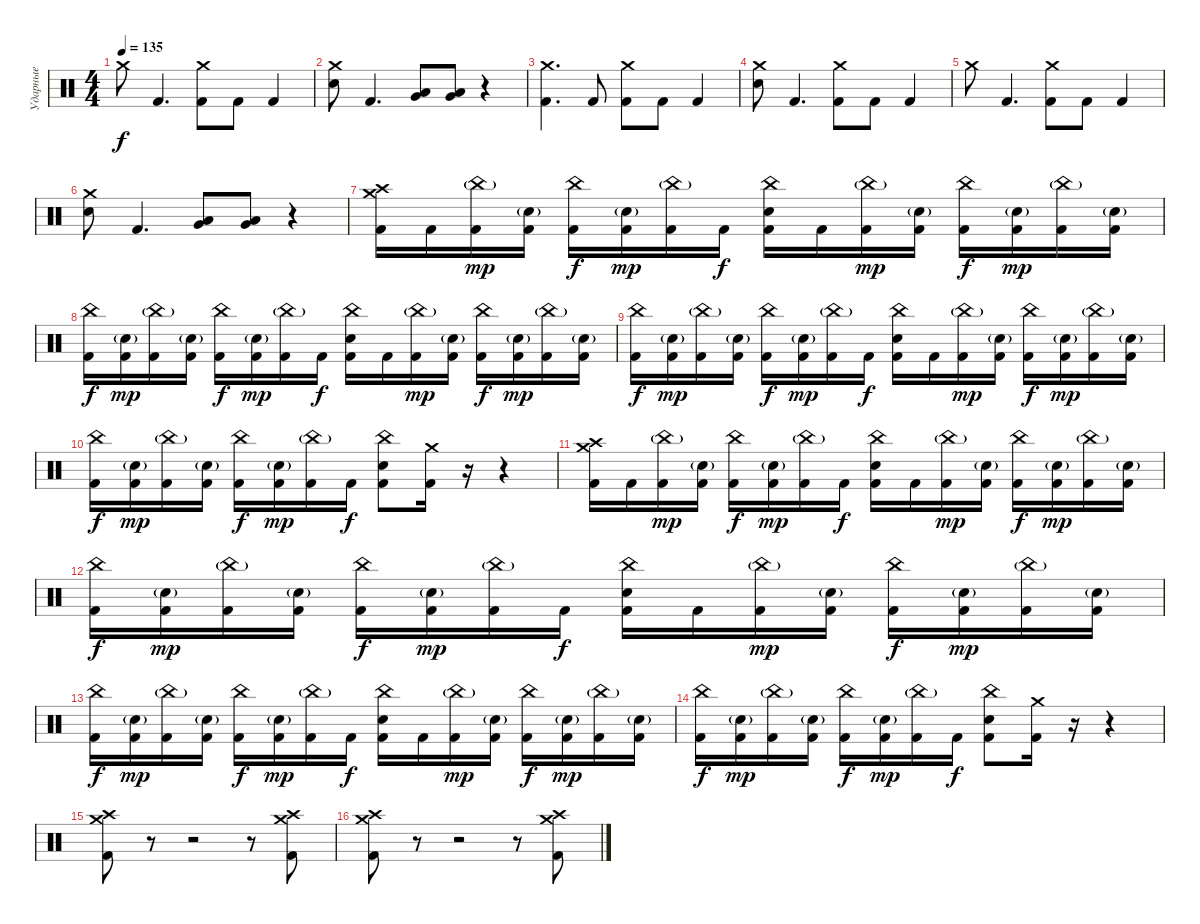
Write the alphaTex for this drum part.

\track ("Ударные" "Ударные") {instrument percussion}
\staff {score}
\articulation defaults
\ts (4 4)
\tempo 135
\clef neutral
\ks c "Crash medium (hit)".8{dy f} "Kick (hit) 2".4{d}
("Crash medium (hit)" "Kick (hit) 2").8 "Kick (hit) 2".8 "Kick (hit) 2".4 |
("Crash medium (hit)" "Electric Snare (hit)").8 "Kick (hit) 2".4{d} ("Low Tom (hit)" "Very Low Tom (hit)").8 ("Low Tom (hit)" "Very Low Tom (hit)").8 r.4 |
("Crash medium (hit)" "Kick (hit) 2").4{d} "Kick (hit) 2".8 ("Crash medium (hit)" "Kick (hit) 2").8 "Kick (hit) 2".8 "Kick (hit) 2".4 |
("Crash medium (hit)" "Electric Snare (hit)").8 "Kick (hit) 2".4{d} ("Crash medium (hit)" "Kick (hit) 2").8 "Kick (hit) 2".8 "Kick (hit) 2".4 |
"Crash medium (hit)".8 "Kick (hit) 2".4{d} ("Crash medium (hit)" "Kick (hit) 2").8 "Kick (hit) 2".8 "Kick (hit) 2".4 |
("Crash medium (hit)" "Electric Snare (hit)").8 "Kick (hit) 2".4{d} ("Low Tom (hit)" "Very Low Tom (hit)").8 ("Low Tom (hit)" "Very Low Tom (hit)").8 r.4 |
("Crash medium (hit)" "Crash high (hit)" "Kick (hit) 2").16 "Kick (hit) 2".16 ("China (hit)"{g} "Kick (hit) 2").16{dy mp} ("Electric Snare (hit)"{g} "Kick (hit) 2").16 ("China (hit)" "Kick (hit) 2").16{dy f} ("Electric Snare (hit)"{g} "Kick (hit) 2").16{dy mp} ("China (hit)"{g} "Kick (hit) 2").16 "Kick (hit) 2".16{dy f} ("China (hit)" "Electric Snare (hit)" "Kick (hit) 2").16 "Kick (hit) 2".16 ("China (hit)"{g} "Kick (hit) 2").16{dy mp} ("Electric Snare (hit)"{g} "Kick (hit) 2").16 ("China (hit)" "Kick (hit) 2").16{dy f} ("Electric Snare (hit)"{g} "Kick (hit) 2").16{dy mp} ("China (hit)"{g} "Kick (hit) 2").16 ("Electric Snare (hit)"{g} "Kick (hit) 2").16 |
("China (hit)" "Kick (hit) 2").16{dy f} ("Electric Snare (hit)"{g} "Kick (hit) 2").16{dy mp} ("China (hit)"{g} "Kick (hit) 2").16 ("Electric Snare (hit)"{g} "Kick (hit) 2").16 ("China (hit)" "Kick (hit) 2").16{dy f} ("Electric Snare (hit)"{g} "Kick (hit) 2").16{dy mp} ("China (hit)"{g} "Kick (hit) 2").16 "Kick (hit) 2".16{dy f} ("China (hit)" "Electric Snare (hit)" "Kick (hit) 2").16 "Kick (hit) 2".16 ("China (hit)"{g} "Kick (hit) 2").16{dy mp} ("Electric Snare (hit)"{g} "Kick (hit) 2").16 ("China (hit)" "Kick (hit) 2").16{dy f} ("Electric Snare (hit)"{g} "Kick (hit) 2").16{dy mp} ("China (hit)"{g} "Kick (hit) 2").16 ("Electric Snare (hit)"{g} "Kick (hit) 2").16 |
("China (hit)" "Kick (hit) 2").16{dy f} ("Electric Snare (hit)"{g} "Kick (hit) 2").16{dy mp} ("China (hit)"{g} "Kick (hit) 2").16 ("Electric Snare (hit)"{g} "Kick (hit) 2").16 ("China (hit)" "Kick (hit) 2").16{dy f} ("Electric Snare (hit)"{g} "Kick (hit) 2").16{dy mp} ("China (hit)"{g} "Kick (hit) 2").16 "Kick (hit) 2".16{dy f} ("China (hit)" "Electric Snare (hit)" "Kick (hit) 2").16 "Kick (hit) 2".16 ("China (hit)"{g} "Kick (hit) 2").16{dy mp} ("Electric Snare (hit)"{g} "Kick (hit) 2").16 ("China (hit)" "Kick (hit) 2").16{dy f} ("Electric Snare (hit)"{g} "Kick (hit) 2").16{dy mp} ("China (hit)"{g} "Kick (hit) 2").16 ("Electric Snare (hit)"{g} "Kick (hit) 2").16 |
("China (hit)" "Kick (hit) 2").16{dy f} ("Electric Snare (hit)"{g} "Kick (hit) 2").16{dy mp} ("China (hit)"{g} "Kick (hit) 2").16 ("Electric Snare (hit)"{g} "Kick (hit) 2").16 ("China (hit)" "Kick (hit) 2").16{dy f} ("Electric Snare (hit)"{g} "Kick (hit) 2").16{dy mp} ("China (hit)"{g} "Kick (hit) 2").16 "Kick (hit) 2".16{dy f} ("China (hit)" "Electric Snare (hit)" "Kick (hit) 2").8 ("Crash medium (hit)" "Kick (hit) 2").16 r.16 r.4 |
("Crash medium (hit)" "Crash high (hit)" "Kick (hit) 2").16 "Kick (hit) 2".16 ("China (hit)"{g} "Kick (hit) 2").16{dy mp} ("Electric Snare (hit)"{g} "Kick (hit) 2").16 ("China (hit)" "Kick (hit) 2").16{dy f} ("Electric Snare (hit)"{g} "Kick (hit) 2").16{dy mp} ("China (hit)"{g} "Kick (hit) 2").16 "Kick (hit) 2".16{dy f} ("China (hit)" "Electric Snare (hit)" "Kick (hit) 2").16 "Kick (hit) 2".16 ("China (hit)"{g} "Kick (hit) 2").16{dy mp} ("Electric Snare (hit)"{g} "Kick (hit) 2").16 ("China (hit)" "Kick (hit) 2").16{dy f} ("Electric Snare (hit)"{g} "Kick (hit) 2").16{dy mp} ("China (hit)"{g} "Kick (hit) 2").16 ("Electric Snare (hit)"{g} "Kick (hit) 2").16 |
("China (hit)" "Kick (hit) 2").16{dy f} ("Electric Snare (hit)"{g} "Kick (hit) 2").16{dy mp} ("China (hit)"{g} "Kick (hit) 2").16 ("Electric Snare (hit)"{g} "Kick (hit) 2").16 ("China (hit)" "Kick (hit) 2").16{dy f} ("Electric Snare (hit)"{g} "Kick (hit) 2").16{dy mp} ("China (hit)"{g} "Kick (hit) 2").16 "Kick (hit) 2".16{dy f} ("China (hit)" "Electric Snare (hit)" "Kick (hit) 2").16 "Kick (hit) 2".16 ("China (hit)"{g} "Kick (hit) 2").16{dy mp} ("Electric Snare (hit)"{g} "Kick (hit) 2").16 ("China (hit)" "Kick (hit) 2").16{dy f} ("Electric Snare (hit)"{g} "Kick (hit) 2").16{dy mp} ("China (hit)"{g} "Kick (hit) 2").16 ("Electric Snare (hit)"{g} "Kick (hit) 2").16 |
("China (hit)" "Kick (hit) 2").16{dy f} ("Electric Snare (hit)"{g} "Kick (hit) 2").16{dy mp} ("China (hit)"{g} "Kick (hit) 2").16 ("Electric Snare (hit)"{g} "Kick (hit) 2").16 ("China (hit)" "Kick (hit) 2").16{dy f} ("Electric Snare (hit)"{g} "Kick (hit) 2").16{dy mp} ("China (hit)"{g} "Kick (hit) 2").16 "Kick (hit) 2".16{dy f} ("China (hit)" "Electric Snare (hit)" "Kick (hit) 2").16 "Kick (hit) 2".16 ("China (hit)"{g} "Kick (hit) 2").16{dy mp} ("Electric Snare (hit)"{g} "Kick (hit) 2").16 ("China (hit)" "Kick (hit) 2").16{dy f} ("Electric Snare (hit)"{g} "Kick (hit) 2").16{dy mp} ("China (hit)"{g} "Kick (hit) 2").16 ("Electric Snare (hit)"{g} "Kick (hit) 2").16 |
("China (hit)" "Kick (hit) 2").16{dy f} ("Electric Snare (hit)"{g} "Kick (hit) 2").16{dy mp} ("China (hit)"{g} "Kick (hit) 2").16 ("Electric Snare (hit)"{g} "Kick (hit) 2").16 ("China (hit)" "Kick (hit) 2").16{dy f} ("Electric Snare (hit)"{g} "Kick (hit) 2").16{dy mp} ("China (hit)"{g} "Kick (hit) 2").16 "Kick (hit) 2".16{dy f} ("China (hit)" "Electric Snare (hit)" "Kick (hit) 2").8 ("Crash medium (hit)" "Kick (hit) 2").16 r.16 r.4 |
("Crash medium (hit)" "Crash high (hit)" "Kick (hit) 2").8 r.8 r.2 r.8 ("Crash medium (hit)" "Crash high (hit)" "Kick (hit) 2").8 |
("Crash medium (hit)" "Crash high (hit)" "Kick (hit) 2").8 r.8 r.2 r.8 ("Crash medium (hit)" "Crash high (hit)" "Kick (hit) 2").8
